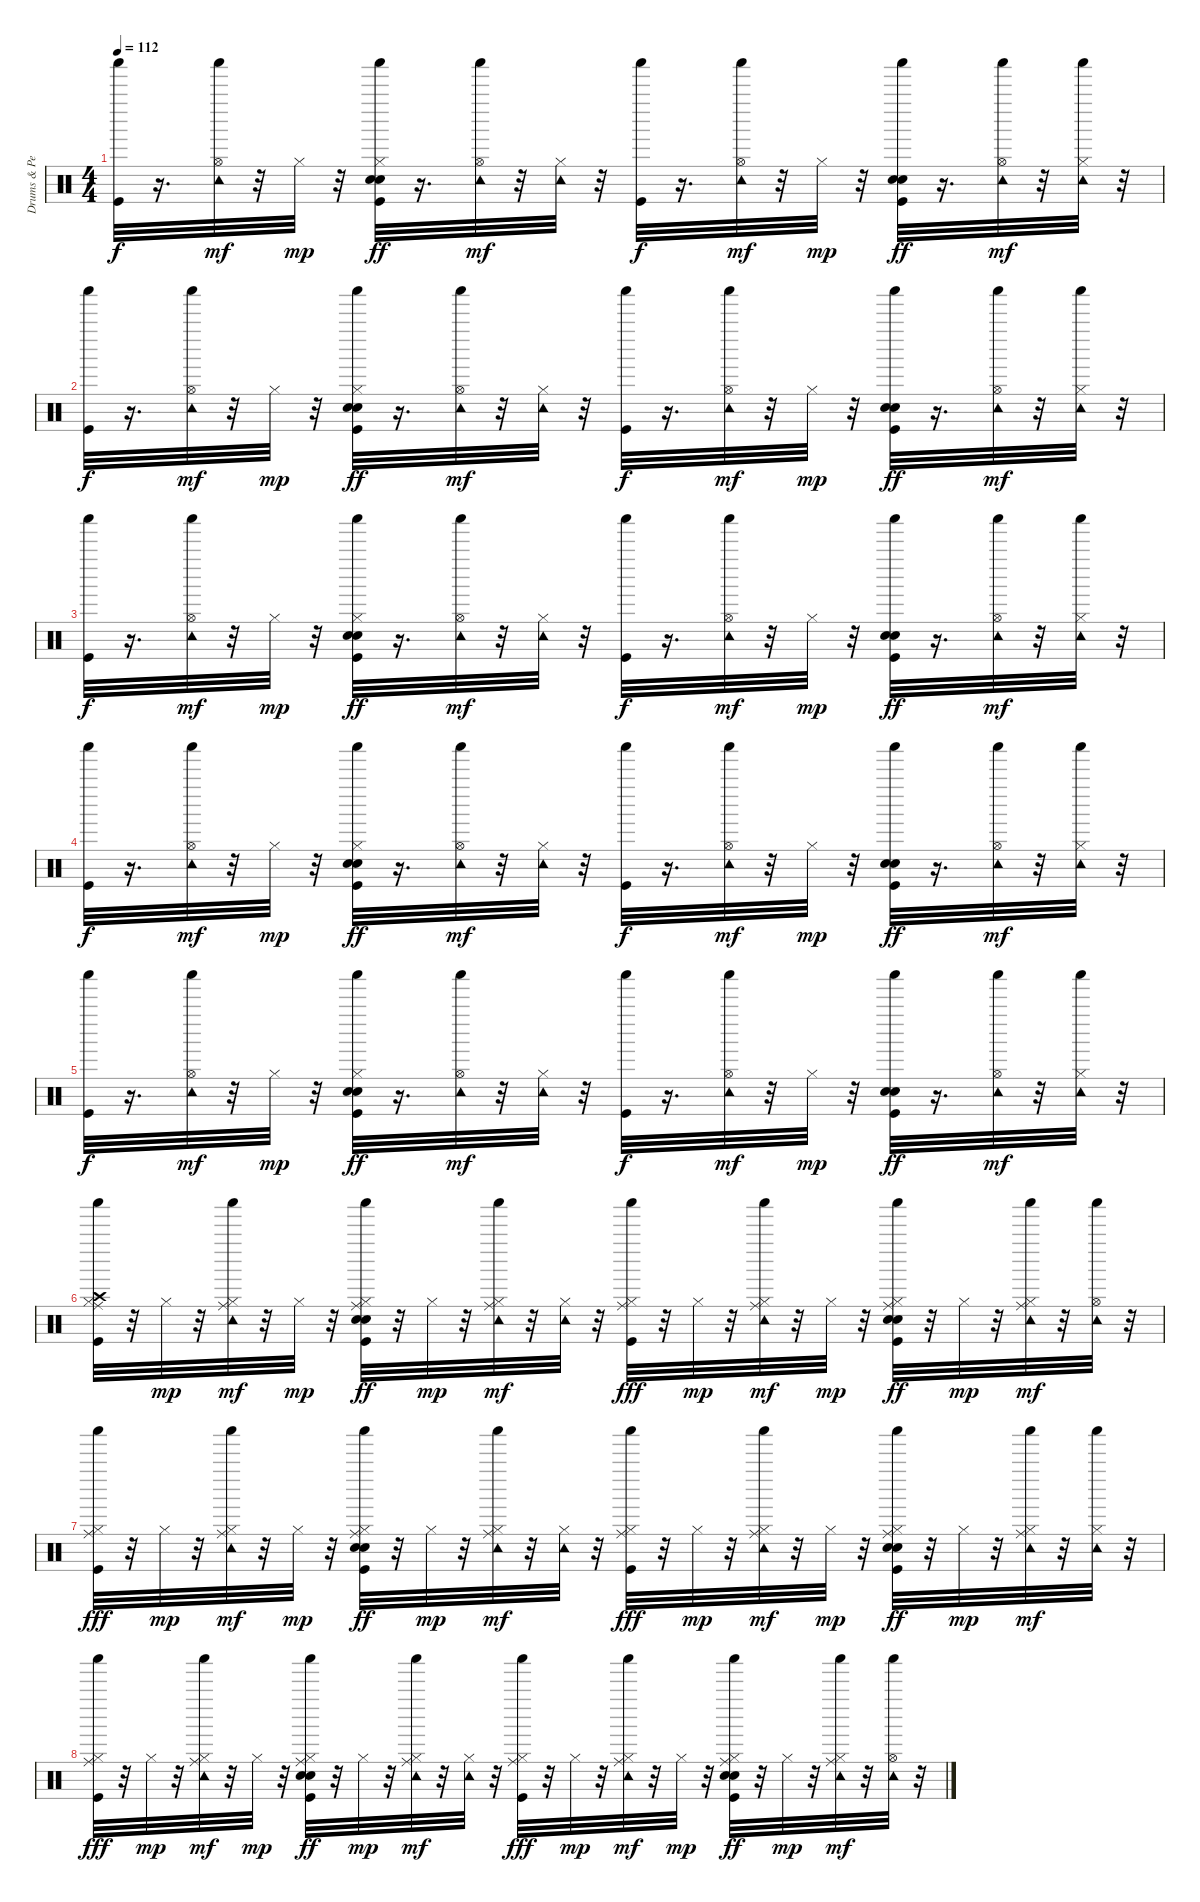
\track ("Drums & Percussion" "Drums & Pe") {instrument percussion}
\staff {score}
\articulation defaults
\ts (4 4)
\tempo 112
\clef neutral
\ks c
("Shaker (hit)" "Kick (hit)").32{dy f} r.16{d} ("Shaker (hit)" "Hi-Hat (open)" "Tambourine (hit)").32{dy mf} r.32 "Hi-Hat (closed)".32{dy mp} r.32 ("Shaker (hit)" "Snare (hit) 2" "Hi-Hat (closed)" "Hand Clap (hit)" "Kick (hit)").32{dy ff} r.16{d} ("Shaker (hit)" "Hi-Hat (open)" "Tambourine (hit)").32{dy mf} r.32 ("Hi-Hat (closed)" "Tambourine (hit)").32 r.32 ("Shaker (hit)" "Kick (hit)").32{dy f} r.16{d} ("Shaker (hit)" "Hi-Hat (open)" "Tambourine (hit)").32{dy mf} r.32 "Hi-Hat (closed)".32{dy mp} r.32 ("Shaker (hit)" "Snare (hit) 2" "Hand Clap (hit)" "Kick (hit)").32{dy ff} r.16{d} ("Shaker (hit)" "Hi-Hat (open)" "Tambourine (hit)").32{dy mf} r.32 ("Hi-Hat (closed)" "Shaker (hit)" "Tambourine (hit)").32 r.32 |
("Shaker (hit)" "Kick (hit)").32{dy f} r.16{d} ("Shaker (hit)" "Hi-Hat (open)" "Tambourine (hit)").32{dy mf} r.32 "Hi-Hat (closed)".32{dy mp} r.32 ("Shaker (hit)" "Snare (hit) 2" "Hi-Hat (closed)" "Hand Clap (hit)" "Kick (hit)").32{dy ff} r.16{d} ("Shaker (hit)" "Hi-Hat (open)" "Tambourine (hit)").32{dy mf} r.32 ("Hi-Hat (closed)" "Tambourine (hit)").32 r.32 ("Shaker (hit)" "Kick (hit)").32{dy f} r.16{d} ("Shaker (hit)" "Hi-Hat (open)" "Tambourine (hit)").32{dy mf} r.32 "Hi-Hat (closed)".32{dy mp} r.32 ("Shaker (hit)" "Snare (hit) 2" "Hand Clap (hit)" "Kick (hit)").32{dy ff} r.16{d} ("Shaker (hit)" "Hi-Hat (open)" "Tambourine (hit)").32{dy mf} r.32 ("Hi-Hat (closed)" "Shaker (hit)" "Tambourine (hit)").32 r.32 |
("Shaker (hit)" "Kick (hit)").32{dy f} r.16{d} ("Shaker (hit)" "Hi-Hat (open)" "Tambourine (hit)").32{dy mf} r.32 "Hi-Hat (closed)".32{dy mp} r.32 ("Shaker (hit)" "Snare (hit) 2" "Hi-Hat (closed)" "Hand Clap (hit)" "Kick (hit)").32{dy ff} r.16{d} ("Shaker (hit)" "Hi-Hat (open)" "Tambourine (hit)").32{dy mf} r.32 ("Hi-Hat (closed)" "Tambourine (hit)").32 r.32 ("Shaker (hit)" "Kick (hit)").32{dy f} r.16{d} ("Shaker (hit)" "Hi-Hat (open)" "Tambourine (hit)").32{dy mf} r.32 "Hi-Hat (closed)".32{dy mp} r.32 ("Shaker (hit)" "Snare (hit) 2" "Hand Clap (hit)" "Kick (hit)").32{dy ff} r.16{d} ("Shaker (hit)" "Hi-Hat (open)" "Tambourine (hit)").32{dy mf} r.32 ("Hi-Hat (closed)" "Shaker (hit)" "Tambourine (hit)").32 r.32 |
("Shaker (hit)" "Kick (hit)").32{dy f} r.16{d} ("Shaker (hit)" "Hi-Hat (open)" "Tambourine (hit)").32{dy mf} r.32 "Hi-Hat (closed)".32{dy mp} r.32 ("Shaker (hit)" "Snare (hit) 2" "Hi-Hat (closed)" "Hand Clap (hit)" "Kick (hit)").32{dy ff} r.16{d} ("Shaker (hit)" "Hi-Hat (open)" "Tambourine (hit)").32{dy mf} r.32 ("Hi-Hat (closed)" "Tambourine (hit)").32 r.32 ("Shaker (hit)" "Kick (hit)").32{dy f} r.16{d} ("Shaker (hit)" "Hi-Hat (open)" "Tambourine (hit)").32{dy mf} r.32 "Hi-Hat (closed)".32{dy mp} r.32 ("Shaker (hit)" "Snare (hit) 2" "Hand Clap (hit)" "Kick (hit)").32{dy ff} r.16{d} ("Shaker (hit)" "Hi-Hat (open)" "Tambourine (hit)").32{dy mf} r.32 ("Hi-Hat (closed)" "Shaker (hit)" "Tambourine (hit)").32 r.32 |
("Shaker (hit)" "Kick (hit)").32{dy f} r.16{d} ("Shaker (hit)" "Hi-Hat (open)" "Tambourine (hit)").32{dy mf} r.32 "Hi-Hat (closed)".32{dy mp} r.32 ("Shaker (hit)" "Snare (hit) 2" "Hi-Hat (closed)" "Hand Clap (hit)" "Kick (hit)").32{dy ff} r.16{d} ("Shaker (hit)" "Hi-Hat (open)" "Tambourine (hit)").32{dy mf} r.32 ("Hi-Hat (closed)" "Tambourine (hit)").32 r.32 ("Shaker (hit)" "Kick (hit)").32{dy f} r.16{d} ("Shaker (hit)" "Hi-Hat (open)" "Tambourine (hit)").32{dy mf} r.32 "Hi-Hat (closed)".32{dy mp} r.32 ("Shaker (hit)" "Snare (hit) 2" "Hand Clap (hit)" "Kick (hit)").32{dy ff} r.16{d} ("Shaker (hit)" "Hi-Hat (open)" "Tambourine (hit)").32{dy mf} r.32 ("Hi-Hat (closed)" "Shaker (hit)" "Tambourine (hit)").32 r.32 |
("Shaker (hit)" "Hi-Hat (closed)" "Ride (middle)" "Crash high (hit)" "Kick (hit)").32 r.32 "Hi-Hat (closed)".32{dy mp} r.32 ("Shaker (hit)" "Hi-Hat (closed)" "Ride (middle)" "Tambourine (hit)").32{dy mf} r.32 "Hi-Hat (closed)".32{dy mp} r.32 ("Shaker (hit)" "Snare (hit) 2" "Hi-Hat (closed)" "Ride (middle)" "Hand Clap (hit)" "Kick (hit)").32{dy ff} r.32 "Hi-Hat (closed)".32{dy mp} r.32 ("Shaker (hit)" "Hi-Hat (closed)" "Ride (middle)" "Tambourine (hit)").32{dy mf} r.32 ("Hi-Hat (closed)" "Tambourine (hit)").32 r.32 ("Shaker (hit)" "Hi-Hat (closed)" "Ride (middle)" "Kick (hit)").32{dy fff} r.32 "Hi-Hat (closed)".32{dy mp} r.32 ("Shaker (hit)" "Hi-Hat (closed)" "Ride (middle)" "Tambourine (hit)").32{dy mf} r.32 "Hi-Hat (closed)".32{dy mp} r.32 ("Shaker (hit)" "Snare (hit) 2" "Hi-Hat (closed)" "Ride (middle)" "Hand Clap (hit)" "Kick (hit)").32{dy ff} r.32 "Hi-Hat (closed)".32{dy mp} r.32 ("Shaker (hit)" "Hi-Hat (closed)" "Ride (middle)" "Tambourine (hit)").32{dy mf} r.32 ("Hi-Hat (open)" "Shaker (hit)" "Tambourine (hit)").32 r.32 |
("Shaker (hit)" "Hi-Hat (closed)" "Ride (middle)" "Kick (hit)").32{dy fff} r.32 "Hi-Hat (closed)".32{dy mp} r.32 ("Shaker (hit)" "Hi-Hat (closed)" "Ride (middle)" "Tambourine (hit)").32{dy mf} r.32 "Hi-Hat (closed)".32{dy mp} r.32 ("Shaker (hit)" "Snare (hit) 2" "Hi-Hat (closed)" "Ride (middle)" "Hand Clap (hit)" "Kick (hit)").32{dy ff} r.32 "Hi-Hat (closed)".32{dy mp} r.32 ("Shaker (hit)" "Hi-Hat (closed)" "Ride (middle)" "Tambourine (hit)").32{dy mf} r.32 ("Hi-Hat (closed)" "Tambourine (hit)").32 r.32 ("Shaker (hit)" "Hi-Hat (closed)" "Ride (middle)" "Kick (hit)").32{dy fff} r.32 "Hi-Hat (closed)".32{dy mp} r.32 ("Shaker (hit)" "Hi-Hat (closed)" "Ride (middle)" "Tambourine (hit)").32{dy mf} r.32 "Hi-Hat (closed)".32{dy mp} r.32 ("Shaker (hit)" "Snare (hit) 2" "Hi-Hat (closed)" "Ride (middle)" "Hand Clap (hit)" "Kick (hit)").32{dy ff} r.32 "Hi-Hat (closed)".32{dy mp} r.32 ("Shaker (hit)" "Hi-Hat (closed)" "Ride (middle)" "Tambourine (hit)").32{dy mf} r.32 ("Shaker (hit)" "Hi-Hat (closed)" "Tambourine (hit)").32 r.32 |
("Shaker (hit)" "Hi-Hat (closed)" "Ride (middle)" "Kick (hit)").32{dy fff} r.32 "Hi-Hat (closed)".32{dy mp} r.32 ("Shaker (hit)" "Hi-Hat (closed)" "Ride (middle)" "Tambourine (hit)").32{dy mf} r.32 "Hi-Hat (closed)".32{dy mp} r.32 ("Shaker (hit)" "Snare (hit) 2" "Hi-Hat (closed)" "Ride (middle)" "Hand Clap (hit)" "Kick (hit)").32{dy ff} r.32 "Hi-Hat (closed)".32{dy mp} r.32 ("Shaker (hit)" "Hi-Hat (closed)" "Ride (middle)" "Tambourine (hit)").32{dy mf} r.32 ("Hi-Hat (closed)" "Tambourine (hit)").32 r.32 ("Shaker (hit)" "Hi-Hat (closed)" "Ride (middle)" "Kick (hit)").32{dy fff} r.32 "Hi-Hat (closed)".32{dy mp} r.32 ("Shaker (hit)" "Hi-Hat (closed)" "Ride (middle)" "Tambourine (hit)").32{dy mf} r.32 "Hi-Hat (closed)".32{dy mp} r.32 ("Shaker (hit)" "Snare (hit) 2" "Hi-Hat (closed)" "Ride (middle)" "Hand Clap (hit)" "Kick (hit)").32{dy ff} r.32 "Hi-Hat (closed)".32{dy mp} r.32 ("Shaker (hit)" "Hi-Hat (closed)" "Ride (middle)" "Tambourine (hit)").32{dy mf} r.32 ("Hi-Hat (open)" "Shaker (hit)" "Tambourine (hit)").32 r.32
